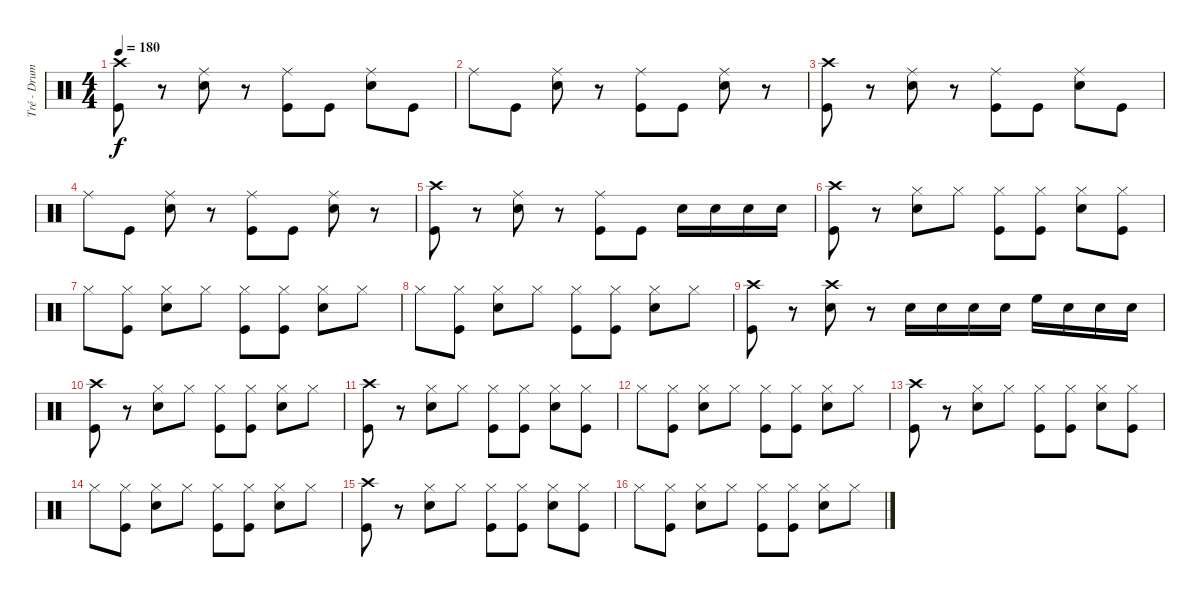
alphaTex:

\track ("Tré - Drums" "Tré - Drum") {instrument percussion}
\staff {score}
\articulation defaults
\ts (4 4)
\tempo 180
\clef neutral
\ks c
("Crash high (hit)" "Kick (hit)").8{dy f} r.8 ("Ride (middle)" "Electric Snare (hit)").8 r.8 ("Ride (middle)" "Kick (hit)").8 "Kick (hit)".8 ("Ride (middle)" "Electric Snare (hit)").8 "Kick (hit)".8 |
"Ride (middle)".8 "Kick (hit)".8 ("Ride (middle)" "Electric Snare (hit)").8 r.8 ("Ride (middle)" "Kick (hit)").8 "Kick (hit)".8 ("Ride (middle)" "Electric Snare (hit)").8 r.8 |
("Crash high (hit)" "Kick (hit)").8 r.8 ("Ride (middle)" "Electric Snare (hit)").8 r.8 ("Ride (middle)" "Kick (hit)").8 "Kick (hit)".8 ("Ride (middle)" "Electric Snare (hit)").8 "Kick (hit)".8 |
"Ride (middle)".8 "Kick (hit)".8 ("Ride (middle)" "Electric Snare (hit)").8 r.8 ("Ride (middle)" "Kick (hit)").8 "Kick (hit)".8 ("Ride (middle)" "Electric Snare (hit)").8 r.8 |
("Crash high (hit)" "Kick (hit)").8 r.8 ("Ride (middle)" "Electric Snare (hit)").8 r.8 ("Ride (middle)" "Kick (hit)").8 "Kick (hit)".8 "Electric Snare (hit)".16 "Electric Snare (hit)".16 "Electric Snare (hit)".16 "Electric Snare (hit)".16 |
("Crash high (hit)" "Kick (hit)").8 r.8 ("Hi-Hat (closed)" "Electric Snare (hit)").8 "Hi-Hat (closed)".8 ("Hi-Hat (closed)" "Kick (hit)").8 ("Hi-Hat (closed)" "Kick (hit)").8 ("Hi-Hat (closed)" "Electric Snare (hit)").8 ("Hi-Hat (closed)" "Kick (hit)").8 |
"Hi-Hat (closed)".8 ("Hi-Hat (closed)" "Kick (hit)").8 ("Hi-Hat (closed)" "Electric Snare (hit)").8 "Hi-Hat (closed)".8 ("Hi-Hat (closed)" "Kick (hit)").8 ("Hi-Hat (closed)" "Kick (hit)").8 ("Hi-Hat (closed)" "Electric Snare (hit)").8 "Hi-Hat (closed)".8 |
"Hi-Hat (closed)".8 ("Hi-Hat (closed)" "Kick (hit)").8 ("Hi-Hat (closed)" "Electric Snare (hit)").8 "Hi-Hat (closed)".8 ("Hi-Hat (closed)" "Kick (hit)").8 ("Hi-Hat (closed)" "Kick (hit)").8 ("Hi-Hat (closed)" "Electric Snare (hit)").8 "Hi-Hat (closed)".8 |
("Crash high (hit)" "Kick (hit)").8 r.8 ("Crash high (hit)" "Electric Snare (hit)").8 r.8 "Electric Snare (hit)".16 "Electric Snare (hit)".16 "Electric Snare (hit)".16 "Electric Snare (hit)".16 "High Floor Tom (hit)".16 "Electric Snare (hit)".16 "Electric Snare (hit)".16 "Electric Snare (hit)".16 |
("Crash high (hit)" "Kick (hit)").8 r.8 ("Hi-Hat (closed)" "Electric Snare (hit)").8 "Hi-Hat (closed)".8 ("Hi-Hat (closed)" "Kick (hit)").8 ("Hi-Hat (closed)" "Kick (hit)").8 ("Hi-Hat (closed)" "Electric Snare (hit)").8 "Hi-Hat (closed)".8 |
("Crash high (hit)" "Kick (hit)").8 r.8 ("Hi-Hat (closed)" "Electric Snare (hit)").8 "Hi-Hat (closed)".8 ("Hi-Hat (closed)" "Kick (hit)").8 ("Hi-Hat (closed)" "Kick (hit)").8 ("Hi-Hat (closed)" "Electric Snare (hit)").8 ("Hi-Hat (closed)" "Kick (hit)").8 |
"Hi-Hat (closed)".8 ("Hi-Hat (closed)" "Kick (hit)").8 ("Hi-Hat (closed)" "Electric Snare (hit)").8 "Hi-Hat (closed)".8 ("Hi-Hat (closed)" "Kick (hit)").8 ("Hi-Hat (closed)" "Kick (hit)").8 ("Hi-Hat (closed)" "Electric Snare (hit)").8 "Hi-Hat (closed)".8 |
("Crash high (hit)" "Kick (hit)").8 r.8 ("Hi-Hat (closed)" "Electric Snare (hit)").8 "Hi-Hat (closed)".8 ("Hi-Hat (closed)" "Kick (hit)").8 ("Hi-Hat (closed)" "Kick (hit)").8 ("Hi-Hat (closed)" "Electric Snare (hit)").8 ("Hi-Hat (closed)" "Kick (hit)").8 |
"Hi-Hat (closed)".8 ("Hi-Hat (closed)" "Kick (hit)").8 ("Hi-Hat (closed)" "Electric Snare (hit)").8 "Hi-Hat (closed)".8 ("Hi-Hat (closed)" "Kick (hit)").8 ("Hi-Hat (closed)" "Kick (hit)").8 ("Hi-Hat (closed)" "Electric Snare (hit)").8 "Hi-Hat (closed)".8 |
("Crash high (hit)" "Kick (hit)").8 r.8 ("Hi-Hat (closed)" "Electric Snare (hit)").8 "Hi-Hat (closed)".8 ("Hi-Hat (closed)" "Kick (hit)").8 ("Hi-Hat (closed)" "Kick (hit)").8 ("Hi-Hat (closed)" "Electric Snare (hit)").8 ("Hi-Hat (closed)" "Kick (hit)").8 |
"Hi-Hat (closed)".8 ("Hi-Hat (closed)" "Kick (hit)").8 ("Hi-Hat (closed)" "Electric Snare (hit)").8 "Hi-Hat (closed)".8 ("Hi-Hat (closed)" "Kick (hit)").8 ("Hi-Hat (closed)" "Kick (hit)").8 ("Hi-Hat (closed)" "Electric Snare (hit)").8 "Hi-Hat (closed)".8
